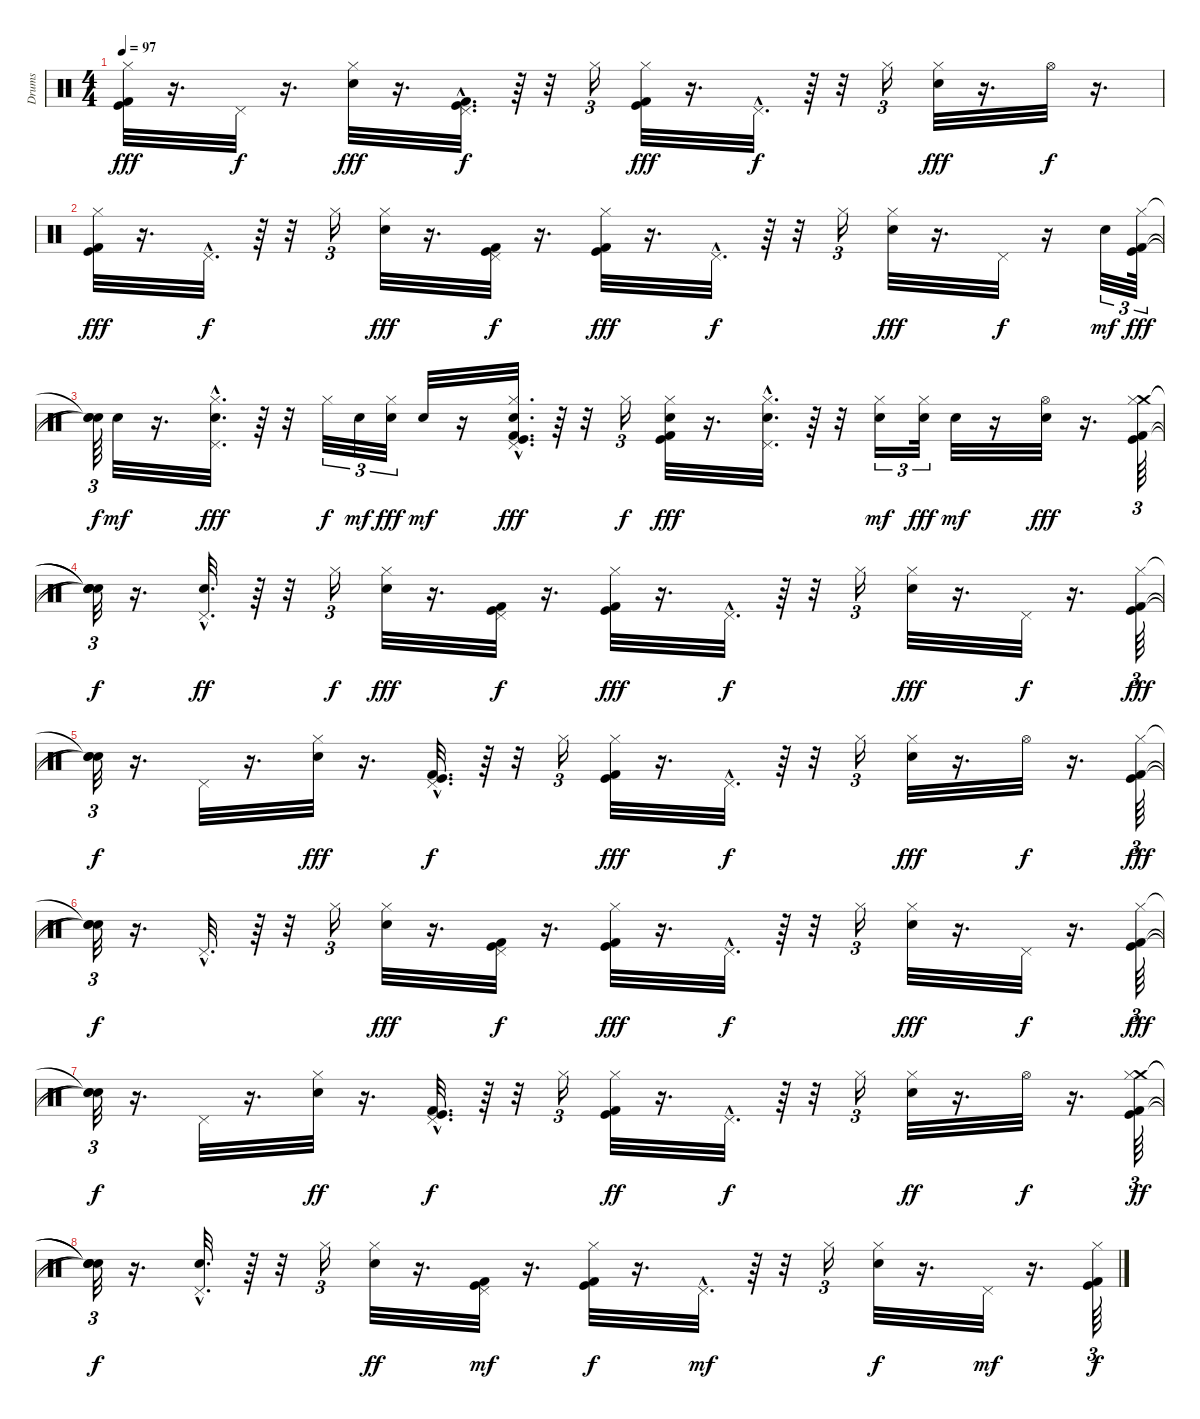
\track ("Drums" "Drums") {instrument percussion}
\staff {score}
\articulation defaults
\ts (4 4)
\tempo 97
\clef neutral
\ks c
("Kick (hit)" "Kick (hit) 2" "Hi-Hat (closed)").32{dy fff} r.16{d} "Pedal Hi-Hat (hit)".32{dy f} r.16{d} ("Hi-Hat (closed)" "Snare (hit) 2").32{dy fff} r.16{d} ("Kick (hit) 2"{hac} "Kick (hit)"{hac} "Pedal Hi-Hat (hit)"{hac}).32{d dy f} r.64 r.32 "Hi-Hat (closed)".16{tu (3 2)} ("Kick (hit)" "Kick (hit) 2" "Hi-Hat (closed)").32{dy fff} r.16{d} "Pedal Hi-Hat (hit)"{hac}.32{d dy f} r.64 r.32 "Hi-Hat (closed)".16{tu (3 2)} ("Hi-Hat (closed)" "Snare (hit) 2").32{dy fff} r.16{d} "Hi-Hat (open)".32{dy f} r.16{d} |
("Kick (hit)" "Kick (hit) 2" "Hi-Hat (closed)").32{dy fff} r.16{d} "Pedal Hi-Hat (hit)"{hac}.32{d dy f} r.64 r.32 "Hi-Hat (closed)".16{tu (3 2)} ("Hi-Hat (closed)" "Snare (hit) 2").32{dy fff} r.16{d} ("Kick (hit) 2" "Kick (hit)" "Pedal Hi-Hat (hit)").32{dy f} r.16{d} ("Kick (hit)" "Kick (hit) 2" "Hi-Hat (closed)").32{dy fff} r.16{d} "Pedal Hi-Hat (hit)"{hac}.32{d dy f} r.64 r.32 "Hi-Hat (closed)".16{tu (3 2)} ("Hi-Hat (closed)" "Snare (hit) 2").32{dy fff} r.16{d} "Pedal Hi-Hat (hit)".32{dy f} r.16 "Snare (hit) 2".32{tu (3 2) dy mf} ("Hi-Hat (closed)" "Kick (hit)" "Kick (hit) 2").64{tu (3 2) dy fff} |
("Snare (hit)"{t} "Snare (hit)"{t} "Snare (hit)"{t}).64{tu (3 2) dy f} "Snare (hit) 2".32{dy mf} r.16{d} ("Snare (hit) 2"{hac} "Hi-Hat (closed)"{hac} "Pedal Hi-Hat (hit)"{hac}).32{d dy fff} r.64 r.32 "Hi-Hat (closed)".32{tu (3 2) dy f} "Snare (hit) 2".32{tu (3 2) dy mf} ("Hi-Hat (closed)" "Snare (hit) 2").32{tu (3 2) dy fff} "Snare (hit) 2".32{dy mf} r.16 ("Snare (hit) 2"{hac} "Hi-Hat (closed)"{hac} "Kick (hit) 2"{hac} "Kick (hit)"{hac} "Pedal Hi-Hat (hit)"{hac}).32{d dy fff} r.64 r.32 "Hi-Hat (closed)".16{tu (3 2) dy f} ("Snare (hit) 2" "Kick (hit)" "Kick (hit) 2" "Hi-Hat (closed)").32{dy fff} r.16{d} ("Snare (hit) 2"{hac} "Hi-Hat (closed)"{hac} "Pedal Hi-Hat (hit)"{hac}).32{d} r.64 r.32 ("Snare (hit) 2" "Hi-Hat (closed)").16{tu (3 2) dy mf} ("Hi-Hat (closed)" "Snare (hit) 2").32{tu (3 2) dy fff} "Snare (hit) 2".32{dy mf} r.16 ("Snare (hit) 2" "Hi-Hat (open)").32{dy fff} r.16{d} ("Crash medium (hit)" "Kick (hit)" "Kick (hit) 2" "Hi-Hat (closed)").64{tu (3 2)} |
("Snare (hit)"{t} "Snare (hit)"{t} "Snare (hit)"{t} "Snare (hit)"{t}).32{tu (3 2) dy f} r.16{d} ("Snare (hit) 2"{hac} "Pedal Hi-Hat (hit)"{hac}).32{d dy ff} r.64 r.32 "Hi-Hat (closed)".16{tu (3 2) dy f} ("Hi-Hat (closed)" "Snare (hit) 2").32{dy fff} r.16{d} ("Kick (hit) 2" "Kick (hit)" "Pedal Hi-Hat (hit)").32{dy f} r.16{d} ("Kick (hit)" "Kick (hit) 2" "Hi-Hat (closed)").32{dy fff} r.16{d} "Pedal Hi-Hat (hit)"{hac}.32{d dy f} r.64 r.32 "Hi-Hat (closed)".16{tu (3 2)} ("Hi-Hat (closed)" "Snare (hit) 2").32{dy fff} r.16{d} "Pedal Hi-Hat (hit)".32{dy f} r.16{d} ("Kick (hit)" "Kick (hit) 2" "Hi-Hat (closed)").64{tu (3 2) dy fff} |
("Snare (hit)"{t} "Snare (hit)"{t} "Snare (hit)"{t}).32{tu (3 2) dy f} r.16{d} "Pedal Hi-Hat (hit)".32 r.16{d} ("Hi-Hat (closed)" "Snare (hit) 2").32{dy fff} r.16{d} ("Kick (hit) 2"{hac} "Kick (hit)"{hac} "Pedal Hi-Hat (hit)"{hac}).32{d dy f} r.64 r.32 "Hi-Hat (closed)".16{tu (3 2)} ("Kick (hit)" "Kick (hit) 2" "Hi-Hat (closed)").32{dy fff} r.16{d} "Pedal Hi-Hat (hit)"{hac}.32{d dy f} r.64 r.32 "Hi-Hat (closed)".16{tu (3 2)} ("Hi-Hat (closed)" "Snare (hit) 2").32{dy fff} r.16{d} "Hi-Hat (open)".32{dy f} r.16{d} ("Kick (hit)" "Kick (hit) 2" "Hi-Hat (closed)").64{tu (3 2) dy fff} |
("Snare (hit)"{t} "Snare (hit)"{t} "Snare (hit)"{t}).32{tu (3 2) dy f} r.16{d} "Pedal Hi-Hat (hit)"{hac}.32{d} r.64 r.32 "Hi-Hat (closed)".16{tu (3 2)} ("Hi-Hat (closed)" "Snare (hit) 2").32{dy fff} r.16{d} ("Kick (hit) 2" "Kick (hit)" "Pedal Hi-Hat (hit)").32{dy f} r.16{d} ("Kick (hit)" "Kick (hit) 2" "Hi-Hat (closed)").32{dy fff} r.16{d} "Pedal Hi-Hat (hit)"{hac}.32{d dy f} r.64 r.32 "Hi-Hat (closed)".16{tu (3 2)} ("Hi-Hat (closed)" "Snare (hit) 2").32{dy fff} r.16{d} "Pedal Hi-Hat (hit)".32{dy f} r.16{d} ("Kick (hit)" "Kick (hit) 2" "Hi-Hat (closed)").64{tu (3 2) dy fff} |
("Snare (hit)"{t} "Snare (hit)"{t} "Snare (hit)"{t}).32{tu (3 2) dy f} r.16{d} "Pedal Hi-Hat (hit)".32 r.16{d} ("Hi-Hat (closed)" "Snare (hit) 2").32{dy ff} r.16{d} ("Kick (hit) 2"{hac} "Kick (hit)"{hac} "Pedal Hi-Hat (hit)"{hac}).32{d dy f} r.64 r.32 "Hi-Hat (closed)".16{tu (3 2)} ("Kick (hit)" "Kick (hit) 2" "Hi-Hat (closed)").32{dy ff} r.16{d} "Pedal Hi-Hat (hit)"{hac}.32{d dy f} r.64 r.32 "Hi-Hat (closed)".16{tu (3 2)} ("Hi-Hat (closed)" "Snare (hit) 2").32{dy ff} r.16{d} "Hi-Hat (open)".32{dy f} r.16{d} ("Crash medium (hit)" "Kick (hit)" "Kick (hit) 2" "Hi-Hat (closed)").64{tu (3 2) dy ff} |
("Snare (hit)"{t} "Snare (hit)"{t} "Snare (hit)"{t} "Snare (hit)"{t}).32{tu (3 2) dy f} r.16{d} ("Snare (hit) 2"{hac} "Pedal Hi-Hat (hit)"{hac}).32{d} r.64 r.32 "Hi-Hat (closed)".16{tu (3 2)} ("Hi-Hat (closed)" "Snare (hit) 2").32{dy ff} r.16{d} ("Kick (hit) 2" "Kick (hit)" "Pedal Hi-Hat (hit)").32{dy mf} r.16{d} ("Kick (hit)" "Kick (hit) 2" "Hi-Hat (closed)").32{dy f} r.16{d} "Pedal Hi-Hat (hit)"{hac}.32{d dy mf} r.64 r.32 "Hi-Hat (closed)".16{tu (3 2)} ("Hi-Hat (closed)" "Snare (hit) 2").32{dy f} r.16{d} "Pedal Hi-Hat (hit)".32{dy mf} r.16{d} ("Kick (hit)" "Kick (hit) 2" "Hi-Hat (closed)").64{tu (3 2) dy f}
